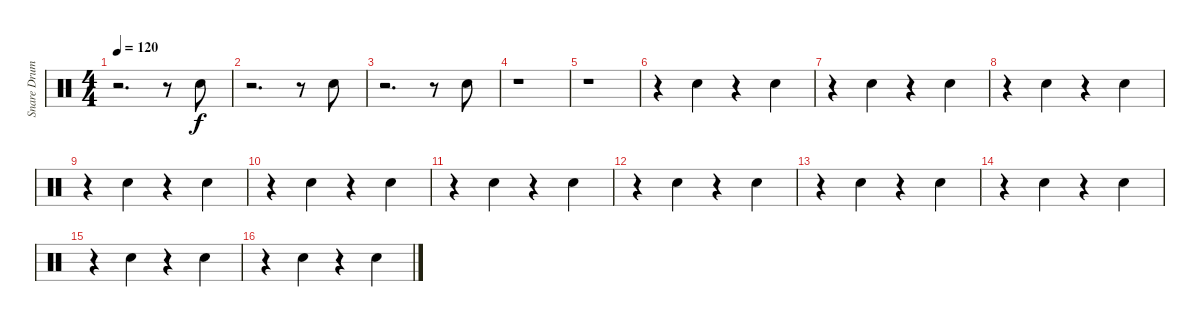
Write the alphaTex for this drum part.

\track ("Snare Drum" "Snare Drum") {instrument percussion}
\staff {score}
\articulation defaults
\ts (4 4)
\tempo 120
\clef neutral
\ks c
r.2{d dy f} r.8 "Snare (hit) 2".8 |
r.2{d} r.8 "Snare (hit) 2".8 |
r.2{d} r.8 "Snare (hit) 2".8 |
r.1 |
r.1 |
r.4 "Snare (hit) 2".4 r.4 "Snare (hit) 2".4 |
r.4 "Snare (hit) 2".4 r.4 "Snare (hit) 2".4 |
r.4 "Snare (hit) 2".4 r.4 "Snare (hit) 2".4 |
r.4 "Snare (hit) 2".4 r.4 "Snare (hit) 2".4 |
r.4 "Snare (hit) 2".4 r.4 "Snare (hit) 2".4 |
r.4 "Snare (hit) 2".4 r.4 "Snare (hit) 2".4 |
r.4 "Snare (hit) 2".4 r.4 "Snare (hit) 2".4 |
r.4 "Snare (hit) 2".4 r.4 "Snare (hit) 2".4 |
r.4 "Snare (hit) 2".4 r.4 "Snare (hit) 2".4 |
r.4 "Snare (hit) 2".4 r.4 "Snare (hit) 2".4 |
r.4 "Snare (hit) 2".4 r.4 "Snare (hit) 2".4
